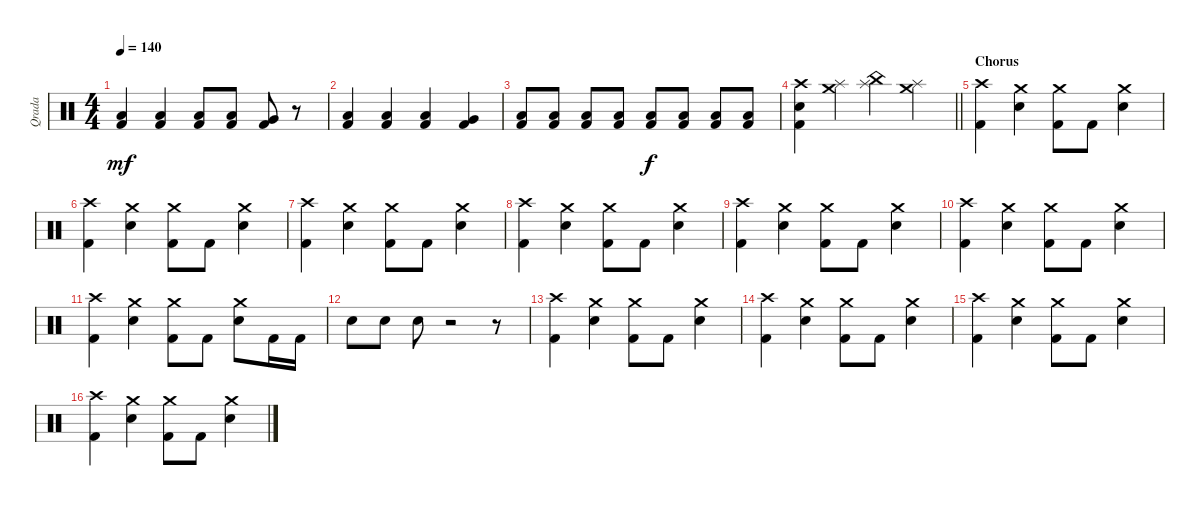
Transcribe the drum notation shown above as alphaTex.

\track ("Qrada" "Qrada") {instrument percussion}
\staff {score}
\articulation defaults
\ts (4 4)
\tempo 140
\clef neutral
\ks c
("Kick (hit) 2" "Low Floor Tom (hit)").4{dy mf} ("Kick (hit) 2" "Low Floor Tom (hit)").4 ("Kick (hit) 2" "Low Floor Tom (hit)").8 ("Kick (hit) 2" "Low Floor Tom (hit)").8 ("Kick (hit) 2" "Very Low Tom (hit)").8 r.8 |
("Kick (hit) 2" "Low Floor Tom (hit)").4 ("Kick (hit) 2" "Low Floor Tom (hit)").4 ("Kick (hit) 2" "Low Floor Tom (hit)").4 ("Kick (hit) 2" "Very Low Tom (hit)").4 |
("Kick (hit) 2" "Low Floor Tom (hit)").8 ("Kick (hit) 2" "Low Floor Tom (hit)").8 ("Kick (hit) 2" "Low Floor Tom (hit)").8 ("Kick (hit) 2" "Low Floor Tom (hit)").8 ("Kick (hit) 2" "Low Floor Tom (hit)").8{dy f} ("Kick (hit) 2" "Low Floor Tom (hit)").8 ("Kick (hit) 2" "Low Floor Tom (hit)").8 ("Kick (hit) 2" "Low Floor Tom (hit)").8 |
\barLineRight lightlight
("Kick (hit) 2" "Snare (hit) 2" "Crash high (hit)").4 ("Crash medium (hit)" "Splash (hit)").4 ("Splash (hit)" "China (hit)").4 ("Crash medium (hit)" "Splash (hit)").4 |
\section ("" "Chorus")
("Kick (hit) 2" "Crash high (hit)").4 ("Snare (hit) 2" "Crash medium (hit)").4 ("Kick (hit) 2" "Crash medium (hit)").8 "Kick (hit) 2".8 ("Snare (hit) 2" "Crash medium (hit)").4 |
("Kick (hit) 2" "Crash high (hit)").4 ("Snare (hit) 2" "Crash medium (hit)").4 ("Kick (hit) 2" "Crash medium (hit)").8 "Kick (hit) 2".8 ("Snare (hit) 2" "Crash medium (hit)").4 |
("Kick (hit) 2" "Crash high (hit)").4 ("Snare (hit) 2" "Crash medium (hit)").4 ("Kick (hit) 2" "Crash medium (hit)").8 "Kick (hit) 2".8 ("Snare (hit) 2" "Crash medium (hit)").4 |
("Kick (hit) 2" "Crash high (hit)").4 ("Snare (hit) 2" "Crash medium (hit)").4 ("Kick (hit) 2" "Crash medium (hit)").8 "Kick (hit) 2".8 ("Snare (hit) 2" "Crash medium (hit)").4 |
("Kick (hit) 2" "Crash high (hit)").4 ("Snare (hit) 2" "Crash medium (hit)").4 ("Kick (hit) 2" "Crash medium (hit)").8 "Kick (hit) 2".8 ("Snare (hit) 2" "Crash medium (hit)").4 |
("Kick (hit) 2" "Crash high (hit)").4 ("Snare (hit) 2" "Crash medium (hit)").4 ("Kick (hit) 2" "Crash medium (hit)").8 "Kick (hit) 2".8 ("Snare (hit) 2" "Crash medium (hit)").4 |
("Kick (hit) 2" "Crash high (hit)").4 ("Snare (hit) 2" "Crash medium (hit)").4 ("Kick (hit) 2" "Crash medium (hit)").8 "Kick (hit) 2".8 ("Snare (hit) 2" "Crash medium (hit)").8 "Kick (hit) 2".16 "Kick (hit) 2".16 |
"Snare (hit) 2".8 "Snare (hit) 2".8 "Snare (hit) 2".8 r.2 r.8 |
("Kick (hit) 2" "Crash high (hit)").4 ("Snare (hit) 2" "Crash medium (hit)").4 ("Kick (hit) 2" "Crash medium (hit)").8 "Kick (hit) 2".8 ("Snare (hit) 2" "Crash medium (hit)").4 |
("Kick (hit) 2" "Crash high (hit)").4 ("Snare (hit) 2" "Crash medium (hit)").4 ("Kick (hit) 2" "Crash medium (hit)").8 "Kick (hit) 2".8 ("Snare (hit) 2" "Crash medium (hit)").4 |
("Kick (hit) 2" "Crash high (hit)").4 ("Snare (hit) 2" "Crash medium (hit)").4 ("Kick (hit) 2" "Crash medium (hit)").8 "Kick (hit) 2".8 ("Snare (hit) 2" "Crash medium (hit)").4 |
("Kick (hit) 2" "Crash high (hit)").4 ("Snare (hit) 2" "Crash medium (hit)").4 ("Kick (hit) 2" "Crash medium (hit)").8 "Kick (hit) 2".8 ("Snare (hit) 2" "Crash medium (hit)").4
